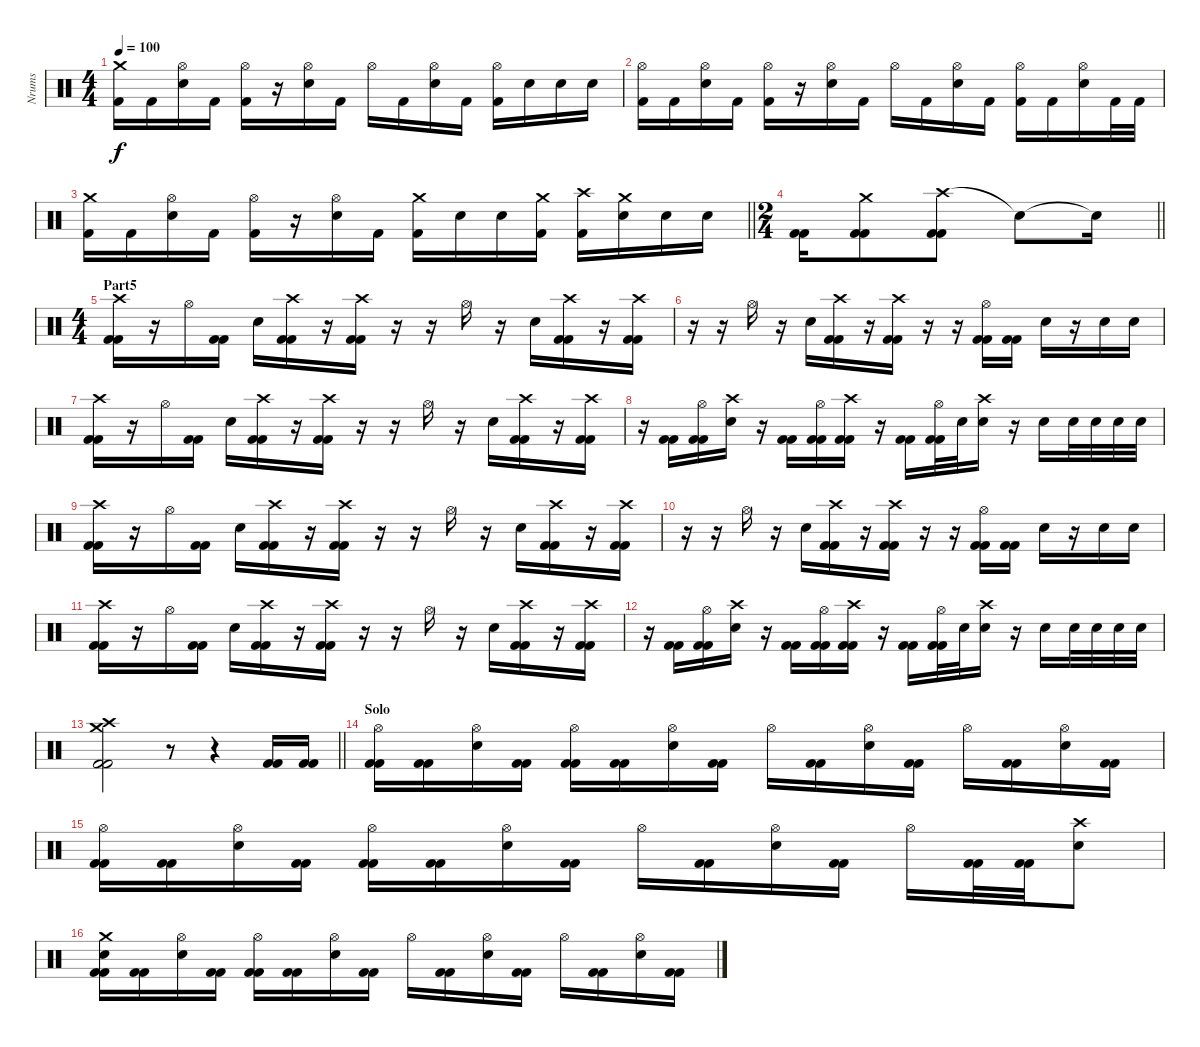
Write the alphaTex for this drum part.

\track ("Nrums" "Nrums") {instrument percussion}
\staff {score}
\articulation defaults
\ts (4 4)
\tempo 100
\clef neutral
\ks c
("Crash medium (hit)" "Kick (hit) 2").16{dy f} "Kick (hit) 2".16 ("Hi-Hat (open)" "Electric Snare (hit)").16 "Kick (hit) 2".16 ("Hi-Hat (open)" "Kick (hit) 2").16 r.16 ("Hi-Hat (open)" "Electric Snare (hit)").16 "Kick (hit) 2".16 "Hi-Hat (open)".16 "Kick (hit) 2".16 ("Hi-Hat (open)" "Electric Snare (hit)").16 "Kick (hit) 2".16 ("Hi-Hat (open)" "Kick (hit) 2").16 "Electric Snare (hit)".16 "Electric Snare (hit)".16 "Electric Snare (hit)".16 |
("Hi-Hat (open)" "Kick (hit) 2").16 "Kick (hit) 2".16 ("Hi-Hat (open)" "Electric Snare (hit)").16 "Kick (hit) 2".16 ("Hi-Hat (open)" "Kick (hit) 2").16 r.16 ("Hi-Hat (open)" "Electric Snare (hit)").16 "Kick (hit) 2".16 "Hi-Hat (open)".16 "Kick (hit) 2".16 ("Hi-Hat (open)" "Electric Snare (hit)").16 "Kick (hit) 2".16 ("Hi-Hat (open)" "Kick (hit) 2").16 "Kick (hit) 2".16 ("Hi-Hat (open)" "Electric Snare (hit)").16 "Kick (hit) 2".32 "Kick (hit) 2".32 |
\barLineRight lightlight
("Crash medium (hit)" "Kick (hit) 2").16 "Kick (hit) 2".16 ("Hi-Hat (open)" "Electric Snare (hit)").16 "Kick (hit) 2".16 ("Hi-Hat (open)" "Kick (hit) 2").16 r.16 ("Hi-Hat (open)" "Electric Snare (hit)").16 "Kick (hit) 2".16 ("Crash medium (hit)" "Kick (hit) 2").16 "Electric Snare (hit)".16 "Electric Snare (hit)".16 ("Crash medium (hit)" "Kick (hit) 2").16 ("Crash high (hit)" "Kick (hit) 2").16 ("Crash medium (hit)" "Electric Snare (hit)").16 "Electric Snare (hit)".16 "Electric Snare (hit)".16 |
\ts (2 4)
\barLineRight lightlight
("Kick (hit) 2" "Kick (hit) 2").16 ("Crash medium (hit)" "Kick (hit) 2" "Kick (hit) 2").8 ("Crash high (hit)" "Kick (hit) 2" "Kick (hit) 2").8 "Snare (hit)"{t}.8 "Snare (hit)"{t}.16 |
\ts (4 4)
\section ("" "Part5")
("Crash high (hit)" "Kick (hit) 2" "Kick (hit) 2").16 r.16 "Hi-Hat (open)".16 ("Kick (hit) 2" "Kick (hit) 2").16 "Electric Snare (hit)".16 ("Crash high (hit)" "Kick (hit) 2" "Kick (hit) 2").16 r.16 ("Crash high (hit)" "Kick (hit) 2" "Kick (hit) 2").16 r.16 r.16 "Hi-Hat (open)".16 r.16 "Electric Snare (hit)".16 ("Crash high (hit)" "Kick (hit) 2" "Kick (hit) 2").16 r.16 ("Crash high (hit)" "Kick (hit) 2" "Kick (hit) 2").16 |
r.16 r.16 "Hi-Hat (open)".16 r.16 "Electric Snare (hit)".16 ("Crash high (hit)" "Kick (hit) 2" "Kick (hit) 2").16 r.16 ("Crash high (hit)" "Kick (hit) 2" "Kick (hit) 2").16 r.16 r.16 ("Hi-Hat (open)" "Kick (hit) 2" "Kick (hit) 2").16 ("Kick (hit) 2" "Kick (hit) 2").16 "Electric Snare (hit)".16 r.16 "Electric Snare (hit)".16 "Electric Snare (hit)".16 |
("Crash high (hit)" "Kick (hit) 2" "Kick (hit) 2").16 r.16 "Hi-Hat (open)".16 ("Kick (hit) 2" "Kick (hit) 2").16 "Electric Snare (hit)".16 ("Crash high (hit)" "Kick (hit) 2" "Kick (hit) 2").16 r.16 ("Crash high (hit)" "Kick (hit) 2" "Kick (hit) 2").16 r.16 r.16 "Hi-Hat (open)".16 r.16 "Electric Snare (hit)".16 ("Crash high (hit)" "Kick (hit) 2" "Kick (hit) 2").16 r.16 ("Crash high (hit)" "Kick (hit) 2" "Kick (hit) 2").16 |
r.16 ("Kick (hit) 2" "Kick (hit) 2").16 ("Hi-Hat (open)" "Kick (hit) 2" "Kick (hit) 2").16 ("Crash high (hit)" "Electric Snare (hit)").16 r.16 ("Kick (hit) 2" "Kick (hit) 2").16 ("Hi-Hat (open)" "Kick (hit) 2" "Kick (hit) 2").16 ("Crash high (hit)" "Kick (hit) 2" "Kick (hit) 2").16 r.16 ("Kick (hit) 2" "Kick (hit) 2").16 ("Hi-Hat (open)" "Kick (hit) 2" "Kick (hit) 2").32 "Electric Snare (hit)".32 ("Crash high (hit)" "Electric Snare (hit)").16 r.16 "Electric Snare (hit)".16 "Electric Snare (hit)".32 "Electric Snare (hit)".32 "Electric Snare (hit)".32 "Electric Snare (hit)".32 |
("Crash high (hit)" "Kick (hit) 2" "Kick (hit) 2").16 r.16 "Hi-Hat (open)".16 ("Kick (hit) 2" "Kick (hit) 2").16 "Electric Snare (hit)".16 ("Crash high (hit)" "Kick (hit) 2" "Kick (hit) 2").16 r.16 ("Crash high (hit)" "Kick (hit) 2" "Kick (hit) 2").16 r.16 r.16 "Hi-Hat (open)".16 r.16 "Electric Snare (hit)".16 ("Crash high (hit)" "Kick (hit) 2" "Kick (hit) 2").16 r.16 ("Crash high (hit)" "Kick (hit) 2" "Kick (hit) 2").16 |
r.16 r.16 "Hi-Hat (open)".16 r.16 "Electric Snare (hit)".16 ("Crash high (hit)" "Kick (hit) 2" "Kick (hit) 2").16 r.16 ("Crash high (hit)" "Kick (hit) 2" "Kick (hit) 2").16 r.16 r.16 ("Hi-Hat (open)" "Kick (hit) 2" "Kick (hit) 2").16 ("Kick (hit) 2" "Kick (hit) 2").16 "Electric Snare (hit)".16 r.16 "Electric Snare (hit)".16 "Electric Snare (hit)".16 |
("Crash high (hit)" "Kick (hit) 2" "Kick (hit) 2").16 r.16 "Hi-Hat (open)".16 ("Kick (hit) 2" "Kick (hit) 2").16 "Electric Snare (hit)".16 ("Crash high (hit)" "Kick (hit) 2" "Kick (hit) 2").16 r.16 ("Crash high (hit)" "Kick (hit) 2" "Kick (hit) 2").16 r.16 r.16 "Hi-Hat (open)".16 r.16 "Electric Snare (hit)".16 ("Crash high (hit)" "Kick (hit) 2" "Kick (hit) 2").16 r.16 ("Crash high (hit)" "Kick (hit) 2" "Kick (hit) 2").16 |
r.16 ("Kick (hit) 2" "Kick (hit) 2").16 ("Hi-Hat (open)" "Kick (hit) 2" "Kick (hit) 2").16 ("Crash high (hit)" "Electric Snare (hit)").16 r.16 ("Kick (hit) 2" "Kick (hit) 2").16 ("Hi-Hat (open)" "Kick (hit) 2" "Kick (hit) 2").16 ("Crash high (hit)" "Kick (hit) 2" "Kick (hit) 2").16 r.16 ("Kick (hit) 2" "Kick (hit) 2").16 ("Hi-Hat (open)" "Kick (hit) 2" "Kick (hit) 2").32 "Electric Snare (hit)".32 ("Crash high (hit)" "Electric Snare (hit)").16 r.16 "Electric Snare (hit)".16 "Electric Snare (hit)".32 "Electric Snare (hit)".32 "Electric Snare (hit)".32 "Electric Snare (hit)".32 |
\barLineRight lightlight
("Crash medium (hit)" "Crash high (hit)" "Kick (hit) 2" "Kick (hit) 2").2 r.8 r.4 ("Kick (hit) 2" "Kick (hit) 2").16 ("Kick (hit) 2" "Kick (hit) 2").16 |
\section ("" "Solo")
("Hi-Hat (open)" "Kick (hit) 2" "Kick (hit) 2").16 ("Kick (hit) 2" "Kick (hit) 2").16 ("Hi-Hat (open)" "Electric Snare (hit)").16 ("Kick (hit) 2" "Kick (hit) 2").16 ("Hi-Hat (open)" "Kick (hit) 2" "Kick (hit) 2").16 ("Kick (hit) 2" "Kick (hit) 2").16 ("Hi-Hat (open)" "Electric Snare (hit)").16 ("Kick (hit) 2" "Kick (hit) 2").16 "Hi-Hat (open)".16 ("Kick (hit) 2" "Kick (hit) 2").16 ("Hi-Hat (open)" "Electric Snare (hit)").16 ("Kick (hit) 2" "Kick (hit) 2").16 "Hi-Hat (open)".16 ("Kick (hit) 2" "Kick (hit) 2").16 ("Hi-Hat (open)" "Electric Snare (hit)").16 ("Kick (hit) 2" "Kick (hit) 2").16 |
("Hi-Hat (open)" "Kick (hit) 2" "Kick (hit) 2").16 ("Kick (hit) 2" "Kick (hit) 2").16 ("Hi-Hat (open)" "Electric Snare (hit)").16 ("Kick (hit) 2" "Kick (hit) 2").16 ("Hi-Hat (open)" "Kick (hit) 2" "Kick (hit) 2").16 ("Kick (hit) 2" "Kick (hit) 2").16 ("Hi-Hat (open)" "Electric Snare (hit)").16 ("Kick (hit) 2" "Kick (hit) 2").16 "Hi-Hat (open)".16 ("Kick (hit) 2" "Kick (hit) 2").16 ("Hi-Hat (open)" "Electric Snare (hit)").16 ("Kick (hit) 2" "Kick (hit) 2").16 "Hi-Hat (open)".16 ("Kick (hit) 2" "Kick (hit) 2").32 ("Kick (hit) 2" "Kick (hit) 2").32 ("Crash high (hit)" "Electric Snare (hit)").8 |
("Crash medium (hit)" "Electric Snare (hit)" "Kick (hit) 2" "Kick (hit) 2").16 ("Kick (hit) 2" "Kick (hit) 2").16 ("Hi-Hat (open)" "Electric Snare (hit)").16 ("Kick (hit) 2" "Kick (hit) 2").16 ("Hi-Hat (open)" "Kick (hit) 2" "Kick (hit) 2").16 ("Kick (hit) 2" "Kick (hit) 2").16 ("Hi-Hat (open)" "Electric Snare (hit)").16 ("Kick (hit) 2" "Kick (hit) 2").16 "Hi-Hat (open)".16 ("Kick (hit) 2" "Kick (hit) 2").16 ("Hi-Hat (open)" "Electric Snare (hit)").16 ("Kick (hit) 2" "Kick (hit) 2").16 "Hi-Hat (open)".16 ("Kick (hit) 2" "Kick (hit) 2").16 ("Hi-Hat (open)" "Electric Snare (hit)").16 ("Kick (hit) 2" "Kick (hit) 2").16
